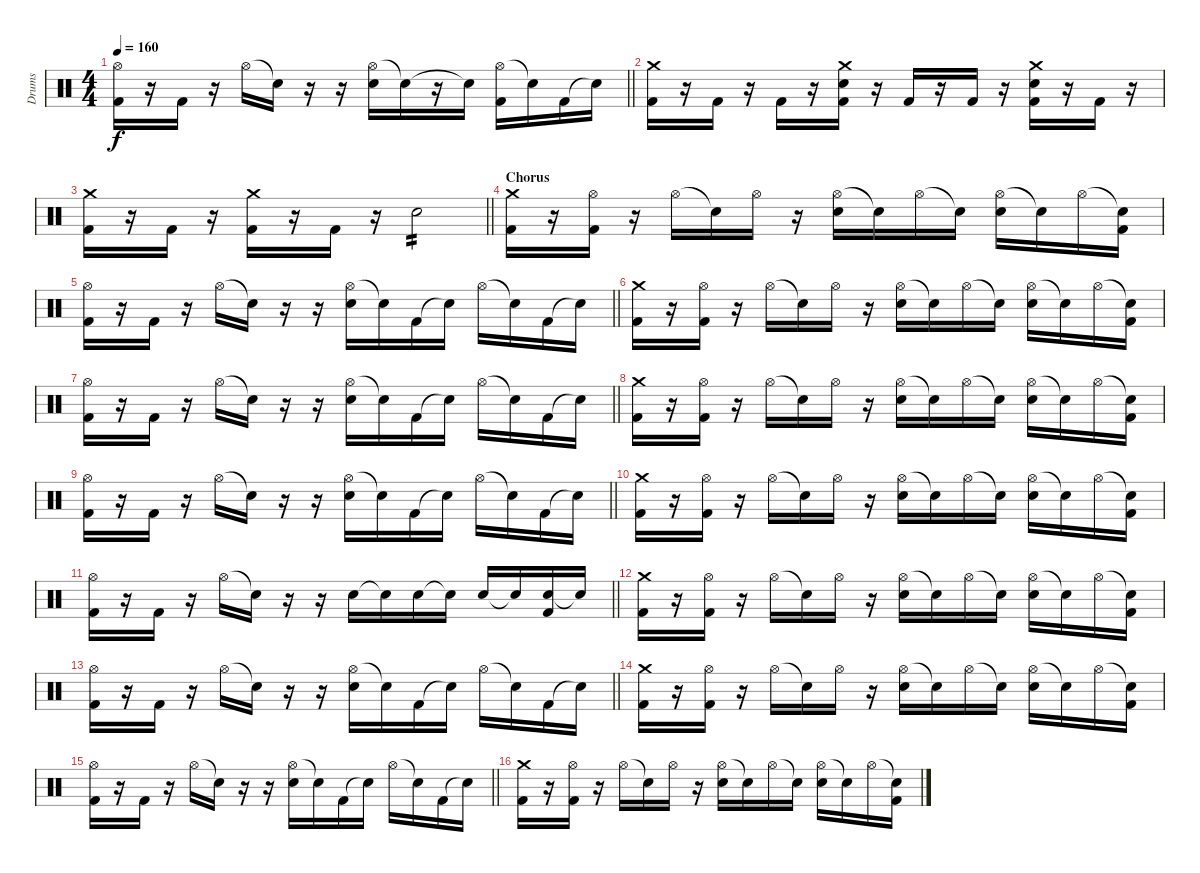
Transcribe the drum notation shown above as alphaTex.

\track ("Drums" "Drums") {instrument percussion}
\staff {score}
\articulation defaults
\ts (4 4)
\tempo 160
\clef neutral
\barLineRight lightlight
\ks c
("Hi-Hat (open)" "Kick (hit) 2").16{dy f} r.16 "Kick (hit) 2".16 r.16 "Hi-Hat (open)".16 "Snare (hit)"{t}.16 r.16 r.16 ("Hi-Hat (open)" "Snare (hit) 2").16 "Snare (hit)"{t}.16 r.16 "Snare (hit)"{t}.16 ("Hi-Hat (open)" "Kick (hit) 2").16 "Snare (hit)"{t}.16 "Kick (hit) 2".16 "Snare (hit)"{t}.16 |
("Crash medium (hit)" "Kick (hit) 2").16 r.16 "Kick (hit) 2".16 r.16 "Kick (hit) 2".16 r.16 ("Crash medium (hit)" "Snare (hit) 2" "Kick (hit) 2").16 r.16 "Kick (hit) 2".16 r.16 "Kick (hit) 2".16 r.16 ("Crash medium (hit)" "Snare (hit) 2" "Kick (hit) 2").16 r.16 "Kick (hit) 2".16 r.16 |
\barLineRight lightlight
("Crash medium (hit)" "Kick (hit) 2").16 r.16 "Kick (hit) 2".16 r.16 ("Crash medium (hit)" "Kick (hit) 2").16 r.16 "Kick (hit) 2".16 r.16 "Snare (hit) 2".2{tp 2} |
\section ("" "Chorus")
("Crash medium (hit)" "Kick (hit) 2").16 r.16 ("Hi-Hat (open)" "Kick (hit) 2").16 r.16 "Hi-Hat (open)".16 "Snare (hit)"{t}.16 "Hi-Hat (open)".16 r.16 ("Hi-Hat (open)" "Snare (hit) 2").16 "Snare (hit)"{t}.16 "Hi-Hat (open)".16 "Snare (hit)"{t}.16 ("Hi-Hat (open)" "Snare (hit) 2").16 "Snare (hit)"{t}.16 "Hi-Hat (open)".16 ("Snare (hit)"{t} "Kick (hit) 2").16 |
\barLineRight lightlight
("Hi-Hat (open)" "Kick (hit) 2").16 r.16 "Kick (hit) 2".16 r.16 "Hi-Hat (open)".16 "Snare (hit)"{t}.16 r.16 r.16 ("Hi-Hat (open)" "Snare (hit) 2").16 "Snare (hit)"{t}.16 "Kick (hit) 2".16 "Snare (hit)"{t}.16 "Hi-Hat (open)".16 "Snare (hit)"{t}.16 "Kick (hit) 2".16 "Snare (hit)"{t}.16 |
("Crash medium (hit)" "Kick (hit) 2").16 r.16 ("Hi-Hat (open)" "Kick (hit) 2").16 r.16 "Hi-Hat (open)".16 "Snare (hit)"{t}.16 "Hi-Hat (open)".16 r.16 ("Hi-Hat (open)" "Snare (hit) 2").16 "Snare (hit)"{t}.16 "Hi-Hat (open)".16 "Snare (hit)"{t}.16 ("Hi-Hat (open)" "Snare (hit) 2").16 "Snare (hit)"{t}.16 "Hi-Hat (open)".16 ("Snare (hit)"{t} "Kick (hit) 2").16 |
\barLineRight lightlight
("Hi-Hat (open)" "Kick (hit) 2").16 r.16 "Kick (hit) 2".16 r.16 "Hi-Hat (open)".16 "Snare (hit)"{t}.16 r.16 r.16 ("Hi-Hat (open)" "Snare (hit) 2").16 "Snare (hit)"{t}.16 "Kick (hit) 2".16 "Snare (hit)"{t}.16 "Hi-Hat (open)".16 "Snare (hit)"{t}.16 "Kick (hit) 2".16 "Snare (hit)"{t}.16 |
("Crash medium (hit)" "Kick (hit) 2").16 r.16 ("Hi-Hat (open)" "Kick (hit) 2").16 r.16 "Hi-Hat (open)".16 "Snare (hit)"{t}.16 "Hi-Hat (open)".16 r.16 ("Hi-Hat (open)" "Snare (hit) 2").16 "Snare (hit)"{t}.16 "Hi-Hat (open)".16 "Snare (hit)"{t}.16 ("Hi-Hat (open)" "Snare (hit) 2").16 "Snare (hit)"{t}.16 "Hi-Hat (open)".16 ("Snare (hit)"{t} "Kick (hit) 2").16 |
\barLineRight lightlight
("Hi-Hat (open)" "Kick (hit) 2").16 r.16 "Kick (hit) 2".16 r.16 "Hi-Hat (open)".16 "Snare (hit)"{t}.16 r.16 r.16 ("Hi-Hat (open)" "Snare (hit) 2").16 "Snare (hit)"{t}.16 "Kick (hit) 2".16 "Snare (hit)"{t}.16 "Hi-Hat (open)".16 "Snare (hit)"{t}.16 "Kick (hit) 2".16 "Snare (hit)"{t}.16 |
("Crash medium (hit)" "Kick (hit) 2").16 r.16 ("Hi-Hat (open)" "Kick (hit) 2").16 r.16 "Hi-Hat (open)".16 "Snare (hit)"{t}.16 "Hi-Hat (open)".16 r.16 ("Hi-Hat (open)" "Snare (hit) 2").16 "Snare (hit)"{t}.16 "Hi-Hat (open)".16 "Snare (hit)"{t}.16 ("Hi-Hat (open)" "Snare (hit) 2").16 "Snare (hit)"{t}.16 "Hi-Hat (open)".16 ("Snare (hit)"{t} "Kick (hit) 2").16 |
\barLineRight lightlight
("Hi-Hat (open)" "Kick (hit) 2").16 r.16 "Kick (hit) 2".16 r.16 "Hi-Hat (open)".16 "Snare (hit)"{t}.16 r.16 r.16 "Snare (hit) 2".16 "Snare (hit)"{t}.16 "Snare (hit) 2".16 "Snare (hit)"{t}.16 "Snare (hit) 2".16 "Snare (hit)"{t}.16 ("Snare (hit) 2" "Kick (hit) 2").16 "Snare (hit)"{t}.16 |
("Crash medium (hit)" "Kick (hit) 2").16 r.16 ("Hi-Hat (open)" "Kick (hit) 2").16 r.16 "Hi-Hat (open)".16 "Snare (hit)"{t}.16 "Hi-Hat (open)".16 r.16 ("Hi-Hat (open)" "Snare (hit) 2").16 "Snare (hit)"{t}.16 "Hi-Hat (open)".16 "Snare (hit)"{t}.16 ("Hi-Hat (open)" "Snare (hit) 2").16 "Snare (hit)"{t}.16 "Hi-Hat (open)".16 ("Snare (hit)"{t} "Kick (hit) 2").16 |
\barLineRight lightlight
("Hi-Hat (open)" "Kick (hit) 2").16 r.16 "Kick (hit) 2".16 r.16 "Hi-Hat (open)".16 "Snare (hit)"{t}.16 r.16 r.16 ("Hi-Hat (open)" "Snare (hit) 2").16 "Snare (hit)"{t}.16 "Kick (hit) 2".16 "Snare (hit)"{t}.16 "Hi-Hat (open)".16 "Snare (hit)"{t}.16 "Kick (hit) 2".16 "Snare (hit)"{t}.16 |
("Crash medium (hit)" "Kick (hit) 2").16 r.16 ("Hi-Hat (open)" "Kick (hit) 2").16 r.16 "Hi-Hat (open)".16 "Snare (hit)"{t}.16 "Hi-Hat (open)".16 r.16 ("Hi-Hat (open)" "Snare (hit) 2").16 "Snare (hit)"{t}.16 "Hi-Hat (open)".16 "Snare (hit)"{t}.16 ("Hi-Hat (open)" "Snare (hit) 2").16 "Snare (hit)"{t}.16 "Hi-Hat (open)".16 ("Snare (hit)"{t} "Kick (hit) 2").16 |
\barLineRight lightlight
("Hi-Hat (open)" "Kick (hit) 2").16 r.16 "Kick (hit) 2".16 r.16 "Hi-Hat (open)".16 "Snare (hit)"{t}.16 r.16 r.16 ("Hi-Hat (open)" "Snare (hit) 2").16 "Snare (hit)"{t}.16 "Kick (hit) 2".16 "Snare (hit)"{t}.16 "Hi-Hat (open)".16 "Snare (hit)"{t}.16 "Kick (hit) 2".16 "Snare (hit)"{t}.16 |
("Crash medium (hit)" "Kick (hit) 2").16 r.16 ("Hi-Hat (open)" "Kick (hit) 2").16 r.16 "Hi-Hat (open)".16 "Snare (hit)"{t}.16 "Hi-Hat (open)".16 r.16 ("Hi-Hat (open)" "Snare (hit) 2").16 "Snare (hit)"{t}.16 "Hi-Hat (open)".16 "Snare (hit)"{t}.16 ("Hi-Hat (open)" "Snare (hit) 2").16 "Snare (hit)"{t}.16 "Hi-Hat (open)".16 ("Snare (hit)"{t} "Kick (hit) 2").16
